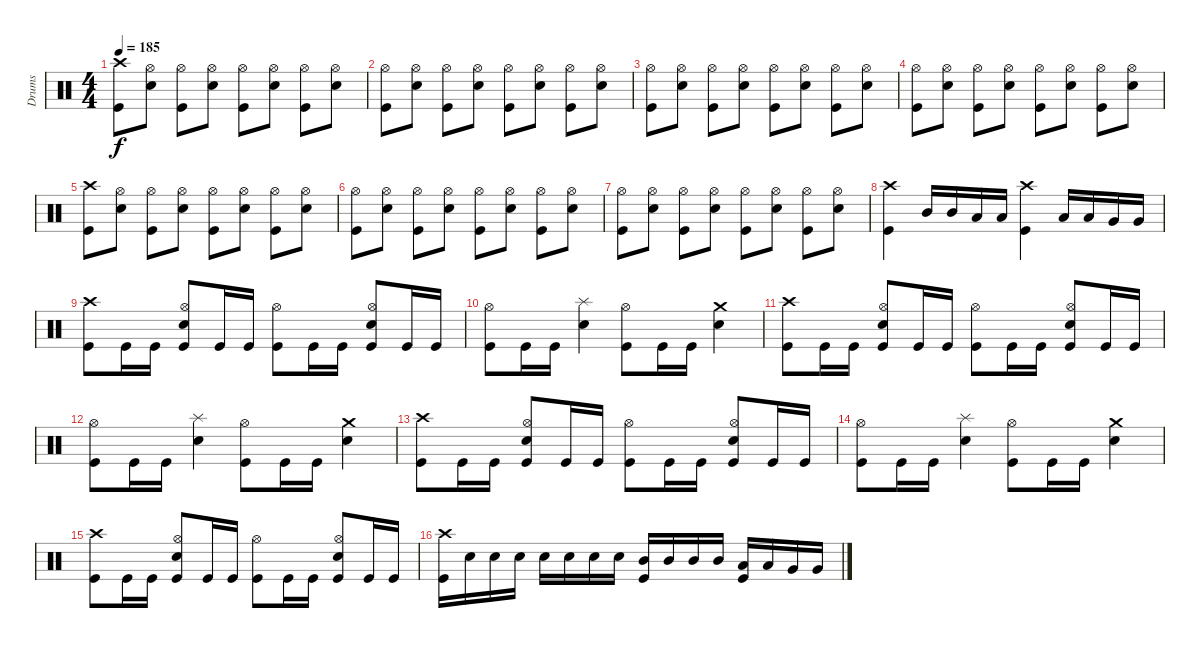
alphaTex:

\track ("Drums" "Drums") {instrument percussion}
\staff {score}
\articulation defaults
\ts (4 4)
\tempo 185
\clef neutral
\ks c
("Crash high (hit)" "Kick (hit)").8{dy f} ("Hi-Hat (open)" "Electric Snare (hit)").8 ("Hi-Hat (open)" "Kick (hit)").8 ("Hi-Hat (open)" "Electric Snare (hit)").8 ("Hi-Hat (open)" "Kick (hit)").8 ("Hi-Hat (open)" "Electric Snare (hit)").8 ("Hi-Hat (open)" "Kick (hit)").8 ("Hi-Hat (open)" "Electric Snare (hit)").8 |
("Hi-Hat (open)" "Kick (hit)").8 ("Hi-Hat (open)" "Electric Snare (hit)").8 ("Hi-Hat (open)" "Kick (hit)").8 ("Hi-Hat (open)" "Electric Snare (hit)").8 ("Hi-Hat (open)" "Kick (hit)").8 ("Hi-Hat (open)" "Electric Snare (hit)").8 ("Hi-Hat (open)" "Kick (hit)").8 ("Hi-Hat (open)" "Electric Snare (hit)").8 |
("Hi-Hat (open)" "Kick (hit)").8 ("Hi-Hat (open)" "Electric Snare (hit)").8 ("Hi-Hat (open)" "Kick (hit)").8 ("Hi-Hat (open)" "Electric Snare (hit)").8 ("Hi-Hat (open)" "Kick (hit)").8 ("Hi-Hat (open)" "Electric Snare (hit)").8 ("Hi-Hat (open)" "Kick (hit)").8 ("Hi-Hat (open)" "Electric Snare (hit)").8 |
("Hi-Hat (open)" "Kick (hit)").8 ("Hi-Hat (open)" "Electric Snare (hit)").8 ("Hi-Hat (open)" "Kick (hit)").8 ("Hi-Hat (open)" "Electric Snare (hit)").8 ("Hi-Hat (open)" "Kick (hit)").8 ("Hi-Hat (open)" "Electric Snare (hit)").8 ("Hi-Hat (open)" "Kick (hit)").8 ("Hi-Hat (open)" "Electric Snare (hit)").8 |
("Crash high (hit)" "Kick (hit)").8 ("Hi-Hat (open)" "Electric Snare (hit)").8 ("Hi-Hat (open)" "Kick (hit)").8 ("Hi-Hat (open)" "Electric Snare (hit)").8 ("Hi-Hat (open)" "Kick (hit)").8 ("Hi-Hat (open)" "Electric Snare (hit)").8 ("Hi-Hat (open)" "Kick (hit)").8 ("Hi-Hat (open)" "Electric Snare (hit)").8 |
("Hi-Hat (open)" "Kick (hit)").8 ("Hi-Hat (open)" "Electric Snare (hit)").8 ("Hi-Hat (open)" "Kick (hit)").8 ("Hi-Hat (open)" "Electric Snare (hit)").8 ("Hi-Hat (open)" "Kick (hit)").8 ("Hi-Hat (open)" "Electric Snare (hit)").8 ("Hi-Hat (open)" "Kick (hit)").8 ("Hi-Hat (open)" "Electric Snare (hit)").8 |
("Hi-Hat (open)" "Kick (hit)").8 ("Hi-Hat (open)" "Electric Snare (hit)").8 ("Hi-Hat (open)" "Kick (hit)").8 ("Hi-Hat (open)" "Electric Snare (hit)").8 ("Hi-Hat (open)" "Kick (hit)").8 ("Hi-Hat (open)" "Electric Snare (hit)").8 ("Hi-Hat (open)" "Kick (hit)").8 ("Hi-Hat (open)" "Electric Snare (hit)").8 |
("Crash high (hit)" "Kick (hit)").4 "Mid Tom (hit)".16 "Mid Tom (hit)".16 "Low Tom (hit)".16 "Low Tom (hit)".16 ("Crash high (hit)" "Kick (hit)").4 "Low Tom (hit)".16 "Low Tom (hit)".16 "Very Low Tom (hit)".16 "Very Low Tom (hit)".16 |
("Crash high (hit)" "Kick (hit)").8 "Kick (hit)".16 "Kick (hit)".16 ("Hi-Hat (open)" "Electric Snare (hit)" "Kick (hit)").8 "Kick (hit)".16 "Kick (hit)".16 ("Hi-Hat (open)" "Kick (hit)").8 "Kick (hit)".16 "Kick (hit)".16 ("Hi-Hat (open)" "Electric Snare (hit)" "Kick (hit)").8 "Kick (hit)".16 "Kick (hit)".16 |
("Hi-Hat (open)" "Kick (hit)").8 "Kick (hit)".16 "Kick (hit)".16 ("Splash (hit)" "Electric Snare (hit)").4 ("Hi-Hat (open)" "Kick (hit)").8 "Kick (hit)".16 "Kick (hit)".16 ("Crash medium (hit)" "Electric Snare (hit)").4 |
("Crash high (hit)" "Kick (hit)").8 "Kick (hit)".16 "Kick (hit)".16 ("Hi-Hat (open)" "Electric Snare (hit)" "Kick (hit)").8 "Kick (hit)".16 "Kick (hit)".16 ("Hi-Hat (open)" "Kick (hit)").8 "Kick (hit)".16 "Kick (hit)".16 ("Hi-Hat (open)" "Electric Snare (hit)" "Kick (hit)").8 "Kick (hit)".16 "Kick (hit)".16 |
("Hi-Hat (open)" "Kick (hit)").8 "Kick (hit)".16 "Kick (hit)".16 ("Splash (hit)" "Electric Snare (hit)").4 ("Hi-Hat (open)" "Kick (hit)").8 "Kick (hit)".16 "Kick (hit)".16 ("Crash medium (hit)" "Electric Snare (hit)").4 |
("Crash high (hit)" "Kick (hit)").8 "Kick (hit)".16 "Kick (hit)".16 ("Hi-Hat (open)" "Electric Snare (hit)" "Kick (hit)").8 "Kick (hit)".16 "Kick (hit)".16 ("Hi-Hat (open)" "Kick (hit)").8 "Kick (hit)".16 "Kick (hit)".16 ("Hi-Hat (open)" "Electric Snare (hit)" "Kick (hit)").8 "Kick (hit)".16 "Kick (hit)".16 |
("Hi-Hat (open)" "Kick (hit)").8 "Kick (hit)".16 "Kick (hit)".16 ("Splash (hit)" "Electric Snare (hit)").4 ("Hi-Hat (open)" "Kick (hit)").8 "Kick (hit)".16 "Kick (hit)".16 ("Crash medium (hit)" "Electric Snare (hit)").4 |
("Crash high (hit)" "Kick (hit)").8 "Kick (hit)".16 "Kick (hit)".16 ("Hi-Hat (open)" "Electric Snare (hit)" "Kick (hit)").8 "Kick (hit)".16 "Kick (hit)".16 ("Hi-Hat (open)" "Kick (hit)").8 "Kick (hit)".16 "Kick (hit)".16 ("Hi-Hat (open)" "Electric Snare (hit)" "Kick (hit)").8 "Kick (hit)".16 "Kick (hit)".16 |
("Crash high (hit)" "Kick (hit)").16 "Electric Snare (hit)".16 "Electric Snare (hit)".16 "Electric Snare (hit)".16 "Electric Snare (hit)".16 "Electric Snare (hit)".16 "Electric Snare (hit)".16 "Electric Snare (hit)".16 ("Mid Tom (hit)" "Kick (hit)").16 "Mid Tom (hit)".16 "Mid Tom (hit)".16 "Mid Tom (hit)".16 ("Low Tom (hit)" "Kick (hit)").16 "Low Tom (hit)".16 "Very Low Tom (hit)".16 "Very Low Tom (hit)".16
